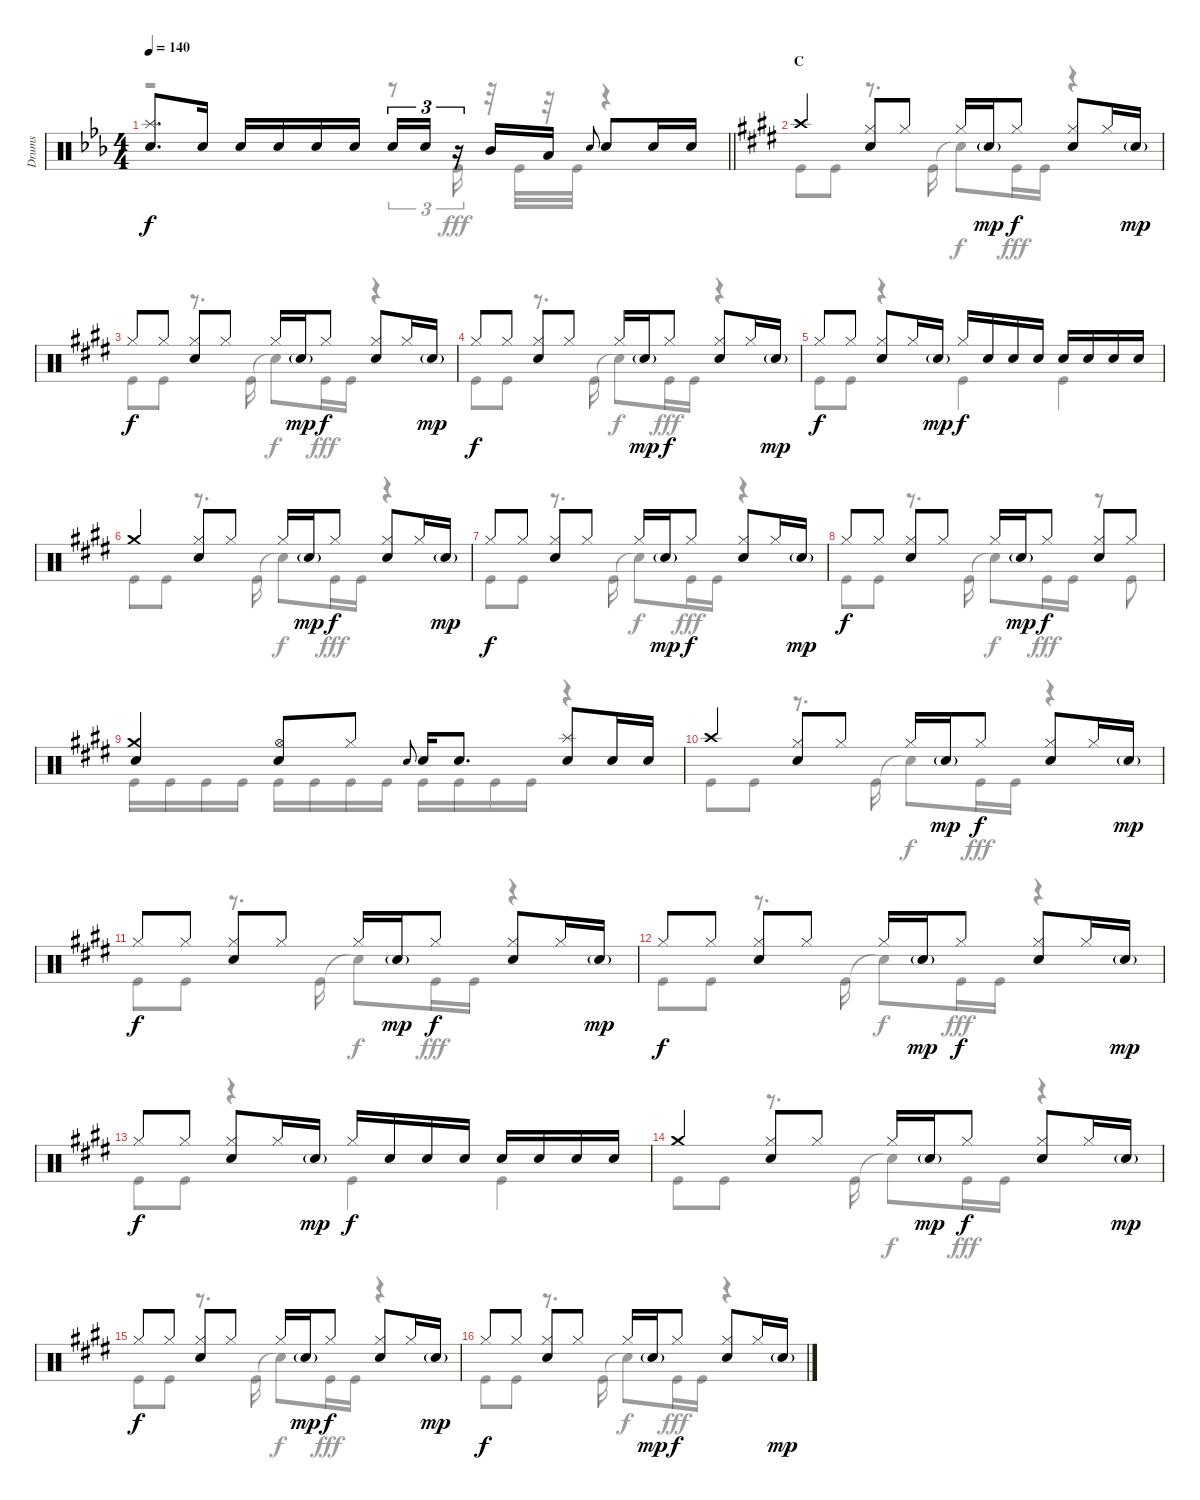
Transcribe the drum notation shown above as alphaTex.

\track ("Drums" "Drums") {instrument percussion}
\staff {score}
\articulation defaults
\voice
\ts (4 4)
\tempo 140
\clef neutral
\barLineRight lightlight
\ks eb
("Splash (hit)" "Snare (hit) 2").8{d dy f} "Snare (hit) 2".16 "Snare (hit) 2".16 "Snare (hit) 2".16 "Snare (hit) 2".16 "Snare (hit) 2".16 "Snare (hit) 2".16{tu (3 2)} "Snare (hit) 2".16{tu (3 2)} r.16{tu (3 2)} "Mid Tom (hit)".16 "Low Tom (hit)".16 "Snare (hit) 2".8{gr onbeat} "Snare (hit) 2".8 "Snare (hit) 2".16 "Snare (hit) 2".16 |
\section ("" "C")
\ks e "Crash high (hit)".4
("Hi-Hat (closed)" "Snare (hit) 2").8 "Hi-Hat (closed)".8 "Hi-Hat (closed)".16 "Snare (hit) 2"{g}.16{dy mp} "Hi-Hat (closed)".8{dy f} ("Hi-Hat (closed)" "Snare (hit) 2").8 "Hi-Hat (closed)".16 "Snare (hit) 2"{g}.16{dy mp} |
"Hi-Hat (closed)".8{dy f} "Hi-Hat (closed)".8 ("Hi-Hat (closed)" "Snare (hit) 2").8 "Hi-Hat (closed)".8 "Hi-Hat (closed)".16 "Snare (hit) 2"{g}.16{dy mp} "Hi-Hat (closed)".8{dy f} ("Hi-Hat (closed)" "Snare (hit) 2").8 "Hi-Hat (closed)".16 "Snare (hit) 2"{g}.16{dy mp} |
"Hi-Hat (closed)".8{dy f} "Hi-Hat (closed)".8 ("Hi-Hat (closed)" "Snare (hit) 2").8 "Hi-Hat (closed)".8 "Hi-Hat (closed)".16 "Snare (hit) 2"{g}.16{dy mp} "Hi-Hat (closed)".8{dy f} ("Hi-Hat (closed)" "Snare (hit) 2").8 "Hi-Hat (closed)".16 "Snare (hit) 2"{g}.16{dy mp} |
"Hi-Hat (closed)".8{dy f} "Hi-Hat (closed)".8 ("Hi-Hat (closed)" "Snare (hit) 2").8 "Hi-Hat (closed)".16 "Snare (hit) 2"{g}.16{dy mp} "Hi-Hat (closed)".16{dy f} "Snare (hit) 2".16 "Snare (hit) 2".16 "Snare (hit) 2".16 "Snare (hit) 2".16 "Snare (hit) 2".16 "Snare (hit) 2".16 "Snare (hit) 2".16 |
"Crash medium (hit)".4 ("Hi-Hat (closed)" "Snare (hit) 2").8 "Hi-Hat (closed)".8 "Hi-Hat (closed)".16 "Snare (hit) 2"{g}.16{dy mp} "Hi-Hat (closed)".8{dy f} ("Hi-Hat (closed)" "Snare (hit) 2").8 "Hi-Hat (closed)".16 "Snare (hit) 2"{g}.16{dy mp} |
"Hi-Hat (closed)".8{dy f} "Hi-Hat (closed)".8 ("Hi-Hat (closed)" "Snare (hit) 2").8 "Hi-Hat (closed)".8 "Hi-Hat (closed)".16 "Snare (hit) 2"{g}.16{dy mp} "Hi-Hat (closed)".8{dy f} ("Hi-Hat (closed)" "Snare (hit) 2").8 "Hi-Hat (closed)".16 "Snare (hit) 2"{g}.16{dy mp} |
"Hi-Hat (closed)".8{dy f} "Hi-Hat (closed)".8 ("Hi-Hat (closed)" "Snare (hit) 2").8 "Hi-Hat (closed)".8 "Hi-Hat (closed)".16 "Snare (hit) 2"{g}.16{dy mp} "Hi-Hat (closed)".8{dy f} ("Hi-Hat (closed)" "Snare (hit) 2").8 "Hi-Hat (closed)".8 |
("Crash medium (hit)" "Snare (hit) 2").4 ("Hi-Hat (open)" "Snare (hit) 2").8 "Hi-Hat (closed)".8 "Snare (hit) 2".8{gr onbeat} "Snare (hit) 2".16 "Snare (hit) 2".8{d} ("Splash (hit)" "Snare (hit) 2").8 "Snare (hit) 2".16 "Snare (hit) 2".16 |
"Crash high (hit)".4 ("Hi-Hat (closed)" "Snare (hit) 2").8 "Hi-Hat (closed)".8 "Hi-Hat (closed)".16 "Snare (hit) 2"{g}.16{dy mp} "Hi-Hat (closed)".8{dy f} ("Hi-Hat (closed)" "Snare (hit) 2").8 "Hi-Hat (closed)".16 "Snare (hit) 2"{g}.16{dy mp} |
"Hi-Hat (closed)".8{dy f} "Hi-Hat (closed)".8 ("Hi-Hat (closed)" "Snare (hit) 2").8 "Hi-Hat (closed)".8 "Hi-Hat (closed)".16 "Snare (hit) 2"{g}.16{dy mp} "Hi-Hat (closed)".8{dy f} ("Hi-Hat (closed)" "Snare (hit) 2").8 "Hi-Hat (closed)".16 "Snare (hit) 2"{g}.16{dy mp} |
"Hi-Hat (closed)".8{dy f} "Hi-Hat (closed)".8 ("Hi-Hat (closed)" "Snare (hit) 2").8 "Hi-Hat (closed)".8 "Hi-Hat (closed)".16 "Snare (hit) 2"{g}.16{dy mp} "Hi-Hat (closed)".8{dy f} ("Hi-Hat (closed)" "Snare (hit) 2").8 "Hi-Hat (closed)".16 "Snare (hit) 2"{g}.16{dy mp} |
"Hi-Hat (closed)".8{dy f} "Hi-Hat (closed)".8 ("Hi-Hat (closed)" "Snare (hit) 2").8 "Hi-Hat (closed)".16 "Snare (hit) 2"{g}.16{dy mp} "Hi-Hat (closed)".16{dy f} "Snare (hit) 2".16 "Snare (hit) 2".16 "Snare (hit) 2".16 "Snare (hit) 2".16 "Snare (hit) 2".16 "Snare (hit) 2".16 "Snare (hit) 2".16 |
"Crash medium (hit)".4 ("Hi-Hat (closed)" "Snare (hit) 2").8 "Hi-Hat (closed)".8 "Hi-Hat (closed)".16 "Snare (hit) 2"{g}.16{dy mp} "Hi-Hat (closed)".8{dy f} ("Hi-Hat (closed)" "Snare (hit) 2").8 "Hi-Hat (closed)".16 "Snare (hit) 2"{g}.16{dy mp} |
"Hi-Hat (closed)".8{dy f} "Hi-Hat (closed)".8 ("Hi-Hat (closed)" "Snare (hit) 2").8 "Hi-Hat (closed)".8 "Hi-Hat (closed)".16 "Snare (hit) 2"{g}.16{dy mp} "Hi-Hat (closed)".8{dy f} ("Hi-Hat (closed)" "Snare (hit) 2").8 "Hi-Hat (closed)".16 "Snare (hit) 2"{g}.16{dy mp} |
"Hi-Hat (closed)".8{dy f} "Hi-Hat (closed)".8 ("Hi-Hat (closed)" "Snare (hit) 2").8 "Hi-Hat (closed)".8 "Hi-Hat (closed)".16 "Snare (hit) 2"{g}.16{dy mp} "Hi-Hat (closed)".8{dy f} ("Hi-Hat (closed)" "Snare (hit) 2").8 "Hi-Hat (closed)".16 "Snare (hit) 2"{g}.16{dy mp}
\voice
\clef neutral
\ottava regular
\simile none
\barLineRight lightlight
\ks eb
r.2{dy fff} r.8{tu (3 2)} "Kick (hit)".16{tu (3 2)} r.32 "Kick (hit)".32 r.32 "Kick (hit)".32 r.4 |
\ks e "Kick (hit)".8 "Kick (hit)".8
r.8{d} "Kick (hit)".16 "Snare (hit)"{t}.8{dy f} "Kick (hit)".16{dy fff} "Kick (hit)".16 r.4 |
"Kick (hit)".8 "Kick (hit)".8 r.8{d} "Kick (hit)".16 "Snare (hit)"{t}.8{dy f} "Kick (hit)".16{dy fff} "Kick (hit)".16 r.4 |
"Kick (hit)".8 "Kick (hit)".8 r.8{d} "Kick (hit)".16 "Snare (hit)"{t}.8{dy f} "Kick (hit)".16{dy fff} "Kick (hit)".16 r.4 |
"Kick (hit)".8 "Kick (hit)".8 r.4 "Kick (hit)".4 "Kick (hit)".4 |
"Kick (hit)".8 "Kick (hit)".8 r.8{d} "Kick (hit)".16 "Snare (hit)"{t}.8{dy f} "Kick (hit)".16{dy fff} "Kick (hit)".16 r.4 |
"Kick (hit)".8 "Kick (hit)".8 r.8{d} "Kick (hit)".16 "Snare (hit)"{t}.8{dy f} "Kick (hit)".16{dy fff} "Kick (hit)".16 r.4 |
"Kick (hit)".8 "Kick (hit)".8 r.8{d} "Kick (hit)".16 "Snare (hit)"{t}.8{dy f} "Kick (hit)".16{dy fff} "Kick (hit)".16 r.8 "Kick (hit)".8 |
"Kick (hit)".16 "Kick (hit)".16 "Kick (hit)".16 "Kick (hit)".16 "Kick (hit)".16 "Kick (hit)".16 "Kick (hit)".16 "Kick (hit)".16 "Kick (hit)".16 "Kick (hit)".16 "Kick (hit)".16 "Kick (hit)".16 r.4 |
"Kick (hit)".8 "Kick (hit)".8 r.8{d} "Kick (hit)".16 "Snare (hit)"{t}.8{dy f} "Kick (hit)".16{dy fff} "Kick (hit)".16 r.4 |
"Kick (hit)".8 "Kick (hit)".8 r.8{d} "Kick (hit)".16 "Snare (hit)"{t}.8{dy f} "Kick (hit)".16{dy fff} "Kick (hit)".16 r.4 |
"Kick (hit)".8 "Kick (hit)".8 r.8{d} "Kick (hit)".16 "Snare (hit)"{t}.8{dy f} "Kick (hit)".16{dy fff} "Kick (hit)".16 r.4 |
"Kick (hit)".8 "Kick (hit)".8 r.4 "Kick (hit)".4 "Kick (hit)".4 |
"Kick (hit)".8 "Kick (hit)".8 r.8{d} "Kick (hit)".16 "Snare (hit)"{t}.8{dy f} "Kick (hit)".16{dy fff} "Kick (hit)".16 r.4 |
"Kick (hit)".8 "Kick (hit)".8 r.8{d} "Kick (hit)".16 "Snare (hit)"{t}.8{dy f} "Kick (hit)".16{dy fff} "Kick (hit)".16 r.4 |
"Kick (hit)".8 "Kick (hit)".8 r.8{d} "Kick (hit)".16 "Snare (hit)"{t}.8{dy f} "Kick (hit)".16{dy fff} "Kick (hit)".16 r.4
